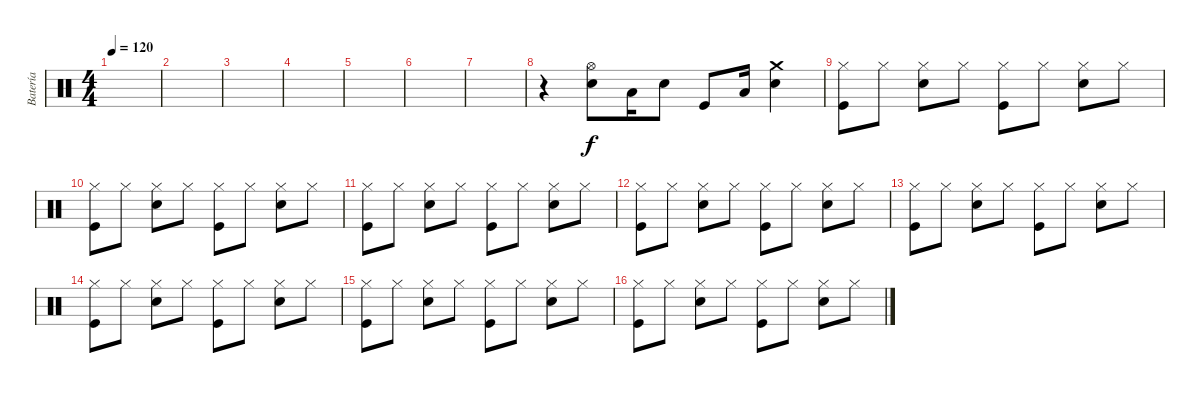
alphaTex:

\track ("Batería" "Batería") {instrument percussion}
\staff {score}
\articulation defaults
\ts (4 4)
\tempo 120
\clef neutral
\ks c
|
|
|
|
|
|
|
r.4 ("Snare (hit) 2" "Hi-Hat (open)").8 "Low Tom (hit)".16 "Snare (hit) 2".8 "Kick (hit)".8 "Low Tom (hit)".16 ("Crash medium (hit)" "Snare (hit) 2").4 |
("Hi-Hat (closed)" "Kick (hit)").8 "Hi-Hat (closed)".8 ("Hi-Hat (closed)" "Snare (hit) 2").8 "Hi-Hat (closed)".8 ("Hi-Hat (closed)" "Kick (hit)").8 "Hi-Hat (closed)".8 ("Hi-Hat (closed)" "Snare (hit) 2").8 "Hi-Hat (closed)".8 |
("Hi-Hat (closed)" "Kick (hit)").8 "Hi-Hat (closed)".8 ("Hi-Hat (closed)" "Snare (hit) 2").8 "Hi-Hat (closed)".8 ("Hi-Hat (closed)" "Kick (hit)").8 "Hi-Hat (closed)".8 ("Hi-Hat (closed)" "Snare (hit) 2").8 "Hi-Hat (closed)".8 |
("Hi-Hat (closed)" "Kick (hit)").8 "Hi-Hat (closed)".8 ("Hi-Hat (closed)" "Snare (hit) 2").8 "Hi-Hat (closed)".8 ("Hi-Hat (closed)" "Kick (hit)").8 "Hi-Hat (closed)".8 ("Hi-Hat (closed)" "Snare (hit) 2").8 "Hi-Hat (closed)".8 |
("Hi-Hat (closed)" "Kick (hit)").8 "Hi-Hat (closed)".8 ("Hi-Hat (closed)" "Snare (hit) 2").8 "Hi-Hat (closed)".8 ("Hi-Hat (closed)" "Kick (hit)").8 "Hi-Hat (closed)".8 ("Hi-Hat (closed)" "Snare (hit) 2").8 "Hi-Hat (closed)".8 |
("Hi-Hat (closed)" "Kick (hit)").8 "Hi-Hat (closed)".8 ("Hi-Hat (closed)" "Snare (hit) 2").8 "Hi-Hat (closed)".8 ("Hi-Hat (closed)" "Kick (hit)").8 "Hi-Hat (closed)".8 ("Hi-Hat (closed)" "Snare (hit) 2").8 "Hi-Hat (closed)".8 |
("Hi-Hat (closed)" "Kick (hit)").8 "Hi-Hat (closed)".8 ("Hi-Hat (closed)" "Snare (hit) 2").8 "Hi-Hat (closed)".8 ("Hi-Hat (closed)" "Kick (hit)").8 "Hi-Hat (closed)".8 ("Hi-Hat (closed)" "Snare (hit) 2").8 "Hi-Hat (closed)".8 |
("Hi-Hat (closed)" "Kick (hit)").8 "Hi-Hat (closed)".8 ("Hi-Hat (closed)" "Snare (hit) 2").8 "Hi-Hat (closed)".8 ("Hi-Hat (closed)" "Kick (hit)").8 "Hi-Hat (closed)".8 ("Hi-Hat (closed)" "Snare (hit) 2").8 "Hi-Hat (closed)".8 |
("Hi-Hat (closed)" "Kick (hit)").8 "Hi-Hat (closed)".8 ("Hi-Hat (closed)" "Snare (hit) 2").8 "Hi-Hat (closed)".8 ("Hi-Hat (closed)" "Kick (hit)").8 "Hi-Hat (closed)".8 ("Hi-Hat (closed)" "Snare (hit) 2").8 "Hi-Hat (closed)".8
